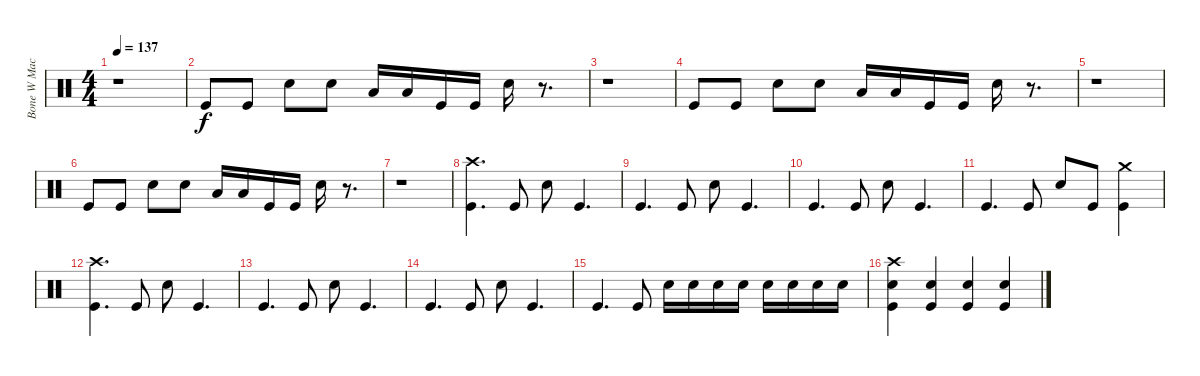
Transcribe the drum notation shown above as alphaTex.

\track ("Bone W Machine Drums" "Bone W Mac") {instrument percussion}
\staff {score}
\articulation defaults
\ts (4 4)
\tempo 137
\clef neutral
\ks c
r.1{dy f} |
"Kick (hit)".8 "Kick (hit)".8 "Snare (hit) 2".8 "Snare (hit) 2".8 "Low Tom (hit)".16 "Low Tom (hit)".16 "Kick (hit)".16 "Kick (hit)".16 "Snare (hit) 2".16 r.8{d} |
r.1 |
"Kick (hit)".8 "Kick (hit)".8 "Snare (hit) 2".8 "Snare (hit) 2".8 "Low Tom (hit)".16 "Low Tom (hit)".16 "Kick (hit)".16 "Kick (hit)".16 "Snare (hit) 2".16 r.8{d} |
r.1 |
"Kick (hit)".8 "Kick (hit)".8 "Snare (hit) 2".8 "Snare (hit) 2".8 "Low Tom (hit)".16 "Low Tom (hit)".16 "Kick (hit)".16 "Kick (hit)".16 "Snare (hit) 2".16 r.8{d} |
r.1 |
("Crash high (hit)" "Kick (hit)").4{d} "Kick (hit)".8 "Snare (hit) 2".8 "Kick (hit)".4{d} |
"Kick (hit)".4{d} "Kick (hit)".8 "Snare (hit) 2".8 "Kick (hit)".4{d} |
"Kick (hit)".4{d} "Kick (hit)".8 "Snare (hit) 2".8 "Kick (hit)".4{d} |
"Kick (hit)".4{d} "Kick (hit)".8 "Snare (hit) 2".8 "Kick (hit)".8 ("Crash medium (hit)" "Kick (hit)").4 |
("Crash high (hit)" "Kick (hit)").4{d} "Kick (hit)".8 "Snare (hit) 2".8 "Kick (hit)".4{d} |
"Kick (hit)".4{d} "Kick (hit)".8 "Snare (hit) 2".8 "Kick (hit)".4{d} |
"Kick (hit)".4{d} "Kick (hit)".8 "Snare (hit) 2".8 "Kick (hit)".4{d} |
"Kick (hit)".4{d} "Kick (hit)".8 "Snare (hit) 2".16 "Snare (hit) 2".16 "Snare (hit) 2".16 "Snare (hit) 2".16 "Snare (hit) 2".16 "Snare (hit) 2".16 "Snare (hit) 2".16 "Snare (hit) 2".16 |
("Crash high (hit)" "Snare (hit) 2" "Kick (hit)").4 ("Snare (hit) 2" "Kick (hit)").4 ("Snare (hit) 2" "Kick (hit)").4 ("Snare (hit) 2" "Kick (hit)").4
